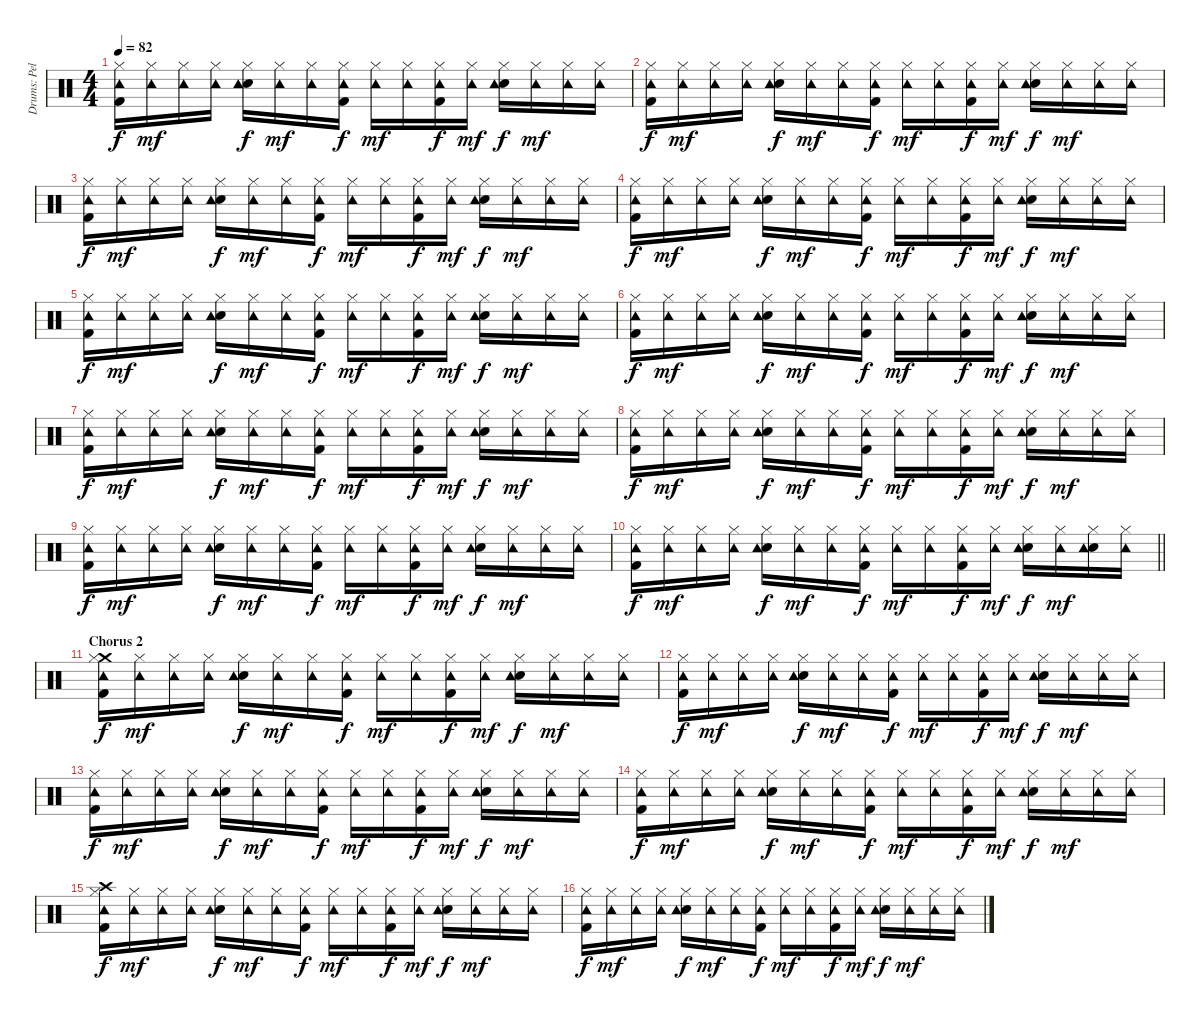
\track ("Drums: Pelle Alsing" "Drums: Pel") {instrument percussion}
\staff {score}
\articulation defaults
\ts (4 4)
\tempo 82
\clef neutral
\ks c
("Hi-Hat (closed)" "Tambourine (hit)" "Kick (hit) 2").16{dy f} ("Hi-Hat (closed)" "Tambourine (hit)").16{dy mf} ("Hi-Hat (closed)" "Tambourine (hit)").16 ("Hi-Hat (closed)" "Tambourine (hit)").16 ("Hi-Hat (closed)" "Snare (hit) 2" "Tambourine (hit)").16{dy f} ("Hi-Hat (closed)" "Tambourine (hit)").16{dy mf} ("Hi-Hat (closed)" "Tambourine (hit)").16 ("Hi-Hat (closed)" "Tambourine (hit)" "Kick (hit) 2").16{dy f} ("Hi-Hat (closed)" "Tambourine (hit)").16{dy mf} ("Hi-Hat (closed)" "Tambourine (hit)").16 ("Hi-Hat (closed)" "Tambourine (hit)" "Kick (hit) 2").16{dy f} ("Hi-Hat (closed)" "Tambourine (hit)").16{dy mf} ("Hi-Hat (closed)" "Snare (hit) 2" "Tambourine (hit)").16{dy f} ("Hi-Hat (closed)" "Tambourine (hit)").16{dy mf} ("Hi-Hat (closed)" "Tambourine (hit)").16 ("Hi-Hat (closed)" "Tambourine (hit)").16 |
("Hi-Hat (closed)" "Tambourine (hit)" "Kick (hit) 2").16{dy f} ("Hi-Hat (closed)" "Tambourine (hit)").16{dy mf} ("Hi-Hat (closed)" "Tambourine (hit)").16 ("Hi-Hat (closed)" "Tambourine (hit)").16 ("Hi-Hat (closed)" "Snare (hit) 2" "Tambourine (hit)").16{dy f} ("Hi-Hat (closed)" "Tambourine (hit)").16{dy mf} ("Hi-Hat (closed)" "Tambourine (hit)").16 ("Hi-Hat (closed)" "Tambourine (hit)" "Kick (hit) 2").16{dy f} ("Hi-Hat (closed)" "Tambourine (hit)").16{dy mf} ("Hi-Hat (closed)" "Tambourine (hit)").16 ("Hi-Hat (closed)" "Tambourine (hit)" "Kick (hit) 2").16{dy f} ("Hi-Hat (closed)" "Tambourine (hit)").16{dy mf} ("Hi-Hat (closed)" "Snare (hit) 2" "Tambourine (hit)").16{dy f} ("Hi-Hat (closed)" "Tambourine (hit)").16{dy mf} ("Hi-Hat (closed)" "Tambourine (hit)").16 ("Hi-Hat (closed)" "Tambourine (hit)").16 |
("Hi-Hat (closed)" "Tambourine (hit)" "Kick (hit) 2").16{dy f} ("Hi-Hat (closed)" "Tambourine (hit)").16{dy mf} ("Hi-Hat (closed)" "Tambourine (hit)").16 ("Hi-Hat (closed)" "Tambourine (hit)").16 ("Hi-Hat (closed)" "Snare (hit) 2" "Tambourine (hit)").16{dy f} ("Hi-Hat (closed)" "Tambourine (hit)").16{dy mf} ("Hi-Hat (closed)" "Tambourine (hit)").16 ("Hi-Hat (closed)" "Tambourine (hit)" "Kick (hit) 2").16{dy f} ("Hi-Hat (closed)" "Tambourine (hit)").16{dy mf} ("Hi-Hat (closed)" "Tambourine (hit)").16 ("Hi-Hat (closed)" "Tambourine (hit)" "Kick (hit) 2").16{dy f} ("Hi-Hat (closed)" "Tambourine (hit)").16{dy mf} ("Hi-Hat (closed)" "Snare (hit) 2" "Tambourine (hit)").16{dy f} ("Hi-Hat (closed)" "Tambourine (hit)").16{dy mf} ("Hi-Hat (closed)" "Tambourine (hit)").16 ("Hi-Hat (closed)" "Tambourine (hit)").16 |
("Hi-Hat (closed)" "Tambourine (hit)" "Kick (hit) 2").16{dy f} ("Hi-Hat (closed)" "Tambourine (hit)").16{dy mf} ("Hi-Hat (closed)" "Tambourine (hit)").16 ("Hi-Hat (closed)" "Tambourine (hit)").16 ("Hi-Hat (closed)" "Snare (hit) 2" "Tambourine (hit)").16{dy f} ("Hi-Hat (closed)" "Tambourine (hit)").16{dy mf} ("Hi-Hat (closed)" "Tambourine (hit)").16 ("Hi-Hat (closed)" "Tambourine (hit)" "Kick (hit) 2").16{dy f} ("Hi-Hat (closed)" "Tambourine (hit)").16{dy mf} ("Hi-Hat (closed)" "Tambourine (hit)").16 ("Hi-Hat (closed)" "Tambourine (hit)" "Kick (hit) 2").16{dy f} ("Hi-Hat (closed)" "Tambourine (hit)").16{dy mf} ("Hi-Hat (closed)" "Snare (hit) 2" "Tambourine (hit)").16{dy f} ("Hi-Hat (closed)" "Tambourine (hit)").16{dy mf} ("Hi-Hat (closed)" "Tambourine (hit)").16 ("Hi-Hat (closed)" "Tambourine (hit)").16 |
("Hi-Hat (closed)" "Tambourine (hit)" "Kick (hit) 2").16{dy f} ("Hi-Hat (closed)" "Tambourine (hit)").16{dy mf} ("Hi-Hat (closed)" "Tambourine (hit)").16 ("Hi-Hat (closed)" "Tambourine (hit)").16 ("Hi-Hat (closed)" "Snare (hit) 2" "Tambourine (hit)").16{dy f} ("Hi-Hat (closed)" "Tambourine (hit)").16{dy mf} ("Hi-Hat (closed)" "Tambourine (hit)").16 ("Hi-Hat (closed)" "Tambourine (hit)" "Kick (hit) 2").16{dy f} ("Hi-Hat (closed)" "Tambourine (hit)").16{dy mf} ("Hi-Hat (closed)" "Tambourine (hit)").16 ("Hi-Hat (closed)" "Tambourine (hit)" "Kick (hit) 2").16{dy f} ("Hi-Hat (closed)" "Tambourine (hit)").16{dy mf} ("Hi-Hat (closed)" "Snare (hit) 2" "Tambourine (hit)").16{dy f} ("Hi-Hat (closed)" "Tambourine (hit)").16{dy mf} ("Hi-Hat (closed)" "Tambourine (hit)").16 ("Hi-Hat (closed)" "Tambourine (hit)").16 |
("Hi-Hat (closed)" "Tambourine (hit)" "Kick (hit) 2").16{dy f} ("Hi-Hat (closed)" "Tambourine (hit)").16{dy mf} ("Hi-Hat (closed)" "Tambourine (hit)").16 ("Hi-Hat (closed)" "Tambourine (hit)").16 ("Hi-Hat (closed)" "Snare (hit) 2" "Tambourine (hit)").16{dy f} ("Hi-Hat (closed)" "Tambourine (hit)").16{dy mf} ("Hi-Hat (closed)" "Tambourine (hit)").16 ("Hi-Hat (closed)" "Tambourine (hit)" "Kick (hit) 2").16{dy f} ("Hi-Hat (closed)" "Tambourine (hit)").16{dy mf} ("Hi-Hat (closed)" "Tambourine (hit)").16 ("Hi-Hat (closed)" "Tambourine (hit)" "Kick (hit) 2").16{dy f} ("Hi-Hat (closed)" "Tambourine (hit)").16{dy mf} ("Hi-Hat (closed)" "Snare (hit) 2" "Tambourine (hit)").16{dy f} ("Hi-Hat (closed)" "Tambourine (hit)").16{dy mf} ("Hi-Hat (closed)" "Tambourine (hit)").16 ("Hi-Hat (closed)" "Tambourine (hit)").16 |
("Hi-Hat (closed)" "Tambourine (hit)" "Kick (hit) 2").16{dy f} ("Hi-Hat (closed)" "Tambourine (hit)").16{dy mf} ("Hi-Hat (closed)" "Tambourine (hit)").16 ("Hi-Hat (closed)" "Tambourine (hit)").16 ("Hi-Hat (closed)" "Snare (hit) 2" "Tambourine (hit)").16{dy f} ("Hi-Hat (closed)" "Tambourine (hit)").16{dy mf} ("Hi-Hat (closed)" "Tambourine (hit)").16 ("Hi-Hat (closed)" "Tambourine (hit)" "Kick (hit) 2").16{dy f} ("Hi-Hat (closed)" "Tambourine (hit)").16{dy mf} ("Hi-Hat (closed)" "Tambourine (hit)").16 ("Hi-Hat (closed)" "Tambourine (hit)" "Kick (hit) 2").16{dy f} ("Hi-Hat (closed)" "Tambourine (hit)").16{dy mf} ("Hi-Hat (closed)" "Snare (hit) 2" "Tambourine (hit)").16{dy f} ("Hi-Hat (closed)" "Tambourine (hit)").16{dy mf} ("Hi-Hat (closed)" "Tambourine (hit)").16 ("Hi-Hat (closed)" "Tambourine (hit)").16 |
("Hi-Hat (closed)" "Tambourine (hit)" "Kick (hit) 2").16{dy f} ("Hi-Hat (closed)" "Tambourine (hit)").16{dy mf} ("Hi-Hat (closed)" "Tambourine (hit)").16 ("Hi-Hat (closed)" "Tambourine (hit)").16 ("Hi-Hat (closed)" "Snare (hit) 2" "Tambourine (hit)").16{dy f} ("Hi-Hat (closed)" "Tambourine (hit)").16{dy mf} ("Hi-Hat (closed)" "Tambourine (hit)").16 ("Hi-Hat (closed)" "Tambourine (hit)" "Kick (hit) 2").16{dy f} ("Hi-Hat (closed)" "Tambourine (hit)").16{dy mf} ("Hi-Hat (closed)" "Tambourine (hit)").16 ("Hi-Hat (closed)" "Tambourine (hit)" "Kick (hit) 2").16{dy f} ("Hi-Hat (closed)" "Tambourine (hit)").16{dy mf} ("Hi-Hat (closed)" "Snare (hit) 2" "Tambourine (hit)").16{dy f} ("Hi-Hat (closed)" "Tambourine (hit)").16{dy mf} ("Hi-Hat (closed)" "Tambourine (hit)").16 ("Hi-Hat (closed)" "Tambourine (hit)").16 |
("Hi-Hat (closed)" "Tambourine (hit)" "Kick (hit) 2").16{dy f} ("Hi-Hat (closed)" "Tambourine (hit)").16{dy mf} ("Hi-Hat (closed)" "Tambourine (hit)").16 ("Hi-Hat (closed)" "Tambourine (hit)").16 ("Hi-Hat (closed)" "Snare (hit) 2" "Tambourine (hit)").16{dy f} ("Hi-Hat (closed)" "Tambourine (hit)").16{dy mf} ("Hi-Hat (closed)" "Tambourine (hit)").16 ("Hi-Hat (closed)" "Tambourine (hit)" "Kick (hit) 2").16{dy f} ("Hi-Hat (closed)" "Tambourine (hit)").16{dy mf} ("Hi-Hat (closed)" "Tambourine (hit)").16 ("Hi-Hat (closed)" "Tambourine (hit)" "Kick (hit) 2").16{dy f} ("Hi-Hat (closed)" "Tambourine (hit)").16{dy mf} ("Hi-Hat (closed)" "Snare (hit) 2" "Tambourine (hit)").16{dy f} ("Hi-Hat (closed)" "Tambourine (hit)").16{dy mf} ("Hi-Hat (closed)" "Tambourine (hit)").16 ("Hi-Hat (closed)" "Tambourine (hit)").16 |
\barLineRight lightlight
("Hi-Hat (closed)" "Tambourine (hit)" "Kick (hit) 2").16{dy f} ("Hi-Hat (closed)" "Tambourine (hit)").16{dy mf} ("Hi-Hat (closed)" "Tambourine (hit)").16 ("Hi-Hat (closed)" "Tambourine (hit)").16 ("Hi-Hat (closed)" "Snare (hit) 2" "Tambourine (hit)").16{dy f} ("Hi-Hat (closed)" "Tambourine (hit)").16{dy mf} ("Hi-Hat (closed)" "Tambourine (hit)").16 ("Hi-Hat (closed)" "Tambourine (hit)" "Kick (hit) 2").16{dy f} ("Hi-Hat (closed)" "Tambourine (hit)").16{dy mf} ("Hi-Hat (closed)" "Tambourine (hit)").16 ("Hi-Hat (closed)" "Tambourine (hit)" "Kick (hit) 2").16{dy f} ("Hi-Hat (closed)" "Tambourine (hit)").16{dy mf} ("Hi-Hat (closed)" "Snare (hit) 2" "Tambourine (hit)").16{dy f} ("Hi-Hat (closed)" "Tambourine (hit)").16{dy mf} ("Hi-Hat (closed)" "Snare (hit) 2" "Tambourine (hit)").16 ("Hi-Hat (closed)" "Tambourine (hit)").16 |
\section ("" "Chorus 2")
("Crash medium (hit)" "Hi-Hat (closed)" "Tambourine (hit)" "Kick (hit) 2").16{dy f} ("Hi-Hat (closed)" "Tambourine (hit)").16{dy mf} ("Hi-Hat (closed)" "Tambourine (hit)").16 ("Hi-Hat (closed)" "Tambourine (hit)").16 ("Hi-Hat (closed)" "Snare (hit) 2" "Tambourine (hit)").16{dy f} ("Hi-Hat (closed)" "Tambourine (hit)").16{dy mf} ("Hi-Hat (closed)" "Tambourine (hit)").16 ("Hi-Hat (closed)" "Tambourine (hit)" "Kick (hit) 2").16{dy f} ("Hi-Hat (closed)" "Tambourine (hit)").16{dy mf} ("Hi-Hat (closed)" "Tambourine (hit)").16 ("Hi-Hat (closed)" "Tambourine (hit)" "Kick (hit) 2").16{dy f} ("Hi-Hat (closed)" "Tambourine (hit)").16{dy mf} ("Hi-Hat (closed)" "Snare (hit) 2" "Tambourine (hit)").16{dy f} ("Hi-Hat (closed)" "Tambourine (hit)").16{dy mf} ("Hi-Hat (closed)" "Tambourine (hit)").16 ("Hi-Hat (closed)" "Tambourine (hit)").16 |
("Hi-Hat (closed)" "Tambourine (hit)" "Kick (hit) 2").16{dy f} ("Hi-Hat (closed)" "Tambourine (hit)").16{dy mf} ("Hi-Hat (closed)" "Tambourine (hit)").16 ("Hi-Hat (closed)" "Tambourine (hit)").16 ("Hi-Hat (closed)" "Snare (hit) 2" "Tambourine (hit)").16{dy f} ("Hi-Hat (closed)" "Tambourine (hit)").16{dy mf} ("Hi-Hat (closed)" "Tambourine (hit)").16 ("Hi-Hat (closed)" "Tambourine (hit)" "Kick (hit) 2").16{dy f} ("Hi-Hat (closed)" "Tambourine (hit)").16{dy mf} ("Hi-Hat (closed)" "Tambourine (hit)").16 ("Hi-Hat (closed)" "Tambourine (hit)" "Kick (hit) 2").16{dy f} ("Hi-Hat (closed)" "Tambourine (hit)").16{dy mf} ("Hi-Hat (closed)" "Snare (hit) 2" "Tambourine (hit)").16{dy f} ("Hi-Hat (closed)" "Tambourine (hit)").16{dy mf} ("Hi-Hat (closed)" "Tambourine (hit)").16 ("Hi-Hat (closed)" "Tambourine (hit)").16 |
("Hi-Hat (closed)" "Tambourine (hit)" "Kick (hit) 2").16{dy f} ("Hi-Hat (closed)" "Tambourine (hit)").16{dy mf} ("Hi-Hat (closed)" "Tambourine (hit)").16 ("Hi-Hat (closed)" "Tambourine (hit)").16 ("Hi-Hat (closed)" "Snare (hit) 2" "Tambourine (hit)").16{dy f} ("Hi-Hat (closed)" "Tambourine (hit)").16{dy mf} ("Hi-Hat (closed)" "Tambourine (hit)").16 ("Hi-Hat (closed)" "Tambourine (hit)" "Kick (hit) 2").16{dy f} ("Hi-Hat (closed)" "Tambourine (hit)").16{dy mf} ("Hi-Hat (closed)" "Tambourine (hit)").16 ("Hi-Hat (closed)" "Tambourine (hit)" "Kick (hit) 2").16{dy f} ("Hi-Hat (closed)" "Tambourine (hit)").16{dy mf} ("Hi-Hat (closed)" "Snare (hit) 2" "Tambourine (hit)").16{dy f} ("Hi-Hat (closed)" "Tambourine (hit)").16{dy mf} ("Hi-Hat (closed)" "Tambourine (hit)").16 ("Hi-Hat (closed)" "Tambourine (hit)").16 |
("Hi-Hat (closed)" "Tambourine (hit)" "Kick (hit) 2").16{dy f} ("Hi-Hat (closed)" "Tambourine (hit)").16{dy mf} ("Hi-Hat (closed)" "Tambourine (hit)").16 ("Hi-Hat (closed)" "Tambourine (hit)").16 ("Hi-Hat (closed)" "Snare (hit) 2" "Tambourine (hit)").16{dy f} ("Hi-Hat (closed)" "Tambourine (hit)").16{dy mf} ("Hi-Hat (closed)" "Tambourine (hit)").16 ("Hi-Hat (closed)" "Tambourine (hit)" "Kick (hit) 2").16{dy f} ("Hi-Hat (closed)" "Tambourine (hit)").16{dy mf} ("Hi-Hat (closed)" "Tambourine (hit)").16 ("Hi-Hat (closed)" "Tambourine (hit)" "Kick (hit) 2").16{dy f} ("Hi-Hat (closed)" "Tambourine (hit)").16{dy mf} ("Hi-Hat (closed)" "Snare (hit) 2" "Tambourine (hit)").16{dy f} ("Hi-Hat (closed)" "Tambourine (hit)").16{dy mf} ("Hi-Hat (closed)" "Tambourine (hit)").16 ("Hi-Hat (closed)" "Tambourine (hit)").16 |
("Crash high (hit)" "Hi-Hat (closed)" "Tambourine (hit)" "Kick (hit) 2").16{dy f} ("Hi-Hat (closed)" "Tambourine (hit)").16{dy mf} ("Hi-Hat (closed)" "Tambourine (hit)").16 ("Hi-Hat (closed)" "Tambourine (hit)").16 ("Hi-Hat (closed)" "Snare (hit) 2" "Tambourine (hit)").16{dy f} ("Hi-Hat (closed)" "Tambourine (hit)").16{dy mf} ("Hi-Hat (closed)" "Tambourine (hit)").16 ("Hi-Hat (closed)" "Tambourine (hit)" "Kick (hit) 2").16{dy f} ("Hi-Hat (closed)" "Tambourine (hit)").16{dy mf} ("Hi-Hat (closed)" "Tambourine (hit)").16 ("Hi-Hat (closed)" "Tambourine (hit)" "Kick (hit) 2").16{dy f} ("Hi-Hat (closed)" "Tambourine (hit)").16{dy mf} ("Hi-Hat (closed)" "Snare (hit) 2" "Tambourine (hit)").16{dy f} ("Hi-Hat (closed)" "Tambourine (hit)").16{dy mf} ("Hi-Hat (closed)" "Tambourine (hit)").16 ("Hi-Hat (closed)" "Tambourine (hit)").16 |
("Hi-Hat (closed)" "Tambourine (hit)" "Kick (hit) 2").16{dy f} ("Hi-Hat (closed)" "Tambourine (hit)").16{dy mf} ("Hi-Hat (closed)" "Tambourine (hit)").16 ("Hi-Hat (closed)" "Tambourine (hit)").16 ("Hi-Hat (closed)" "Snare (hit) 2" "Tambourine (hit)").16{dy f} ("Hi-Hat (closed)" "Tambourine (hit)").16{dy mf} ("Hi-Hat (closed)" "Tambourine (hit)").16 ("Hi-Hat (closed)" "Tambourine (hit)" "Kick (hit) 2").16{dy f} ("Hi-Hat (closed)" "Tambourine (hit)").16{dy mf} ("Hi-Hat (closed)" "Tambourine (hit)").16 ("Hi-Hat (closed)" "Tambourine (hit)" "Kick (hit) 2").16{dy f} ("Hi-Hat (closed)" "Tambourine (hit)").16{dy mf} ("Hi-Hat (closed)" "Snare (hit) 2" "Tambourine (hit)").16{dy f} ("Hi-Hat (closed)" "Tambourine (hit)").16{dy mf} ("Hi-Hat (closed)" "Tambourine (hit)").16 ("Hi-Hat (closed)" "Tambourine (hit)").16
